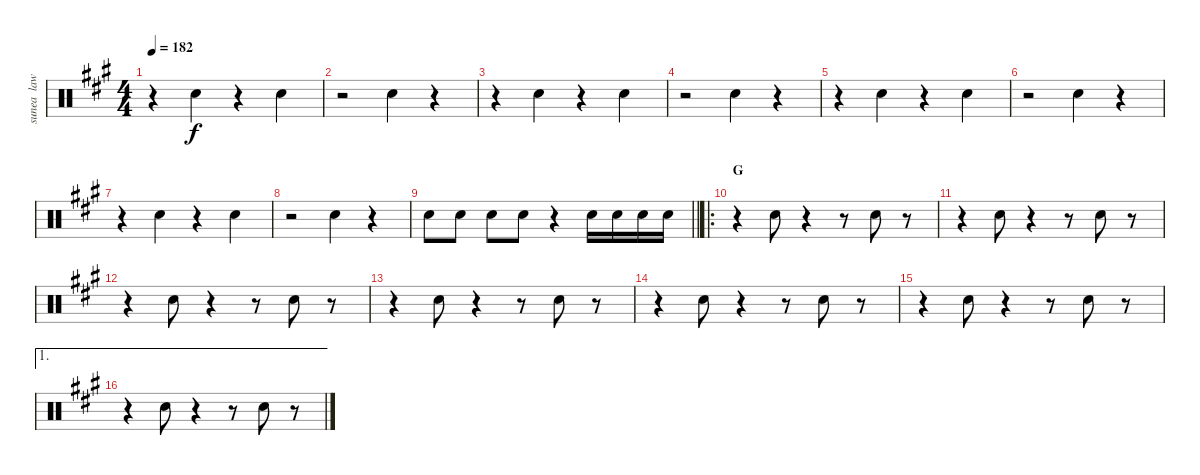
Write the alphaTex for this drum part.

\track ("sunea  law tam" "sunea  law") {instrument percussion}
\staff {score}
\articulation defaults
\ts (4 4)
\tempo 182
\clef neutral
\ks f#minor
r.4{dy f} "Snare (hit) 2".4 r.4 "Snare (hit) 2".4 |
r.2 "Snare (hit) 2".4 r.4 |
r.4 "Snare (hit) 2".4 r.4 "Snare (hit) 2".4 |
r.2 "Snare (hit) 2".4 r.4 |
r.4 "Snare (hit) 2".4 r.4 "Snare (hit) 2".4 |
r.2 "Snare (hit) 2".4 r.4 |
r.4 "Snare (hit) 2".4 r.4 "Snare (hit) 2".4 |
r.2 "Snare (hit) 2".4 r.4 |
\barLineRight lightlight "Snare (hit) 2".8 "Snare (hit) 2".8 "Snare (hit) 2".8 "Snare (hit) 2".8
r.4 "Snare (hit) 2".16 "Snare (hit) 2".16 "Snare (hit) 2".16 "Snare (hit) 2".16 |
\ro
\section ("" "G")
r.4 "Snare (hit) 2".8 r.4 r.8 "Snare (hit) 2".8 r.8 |
r.4 "Snare (hit) 2".8 r.4 r.8 "Snare (hit) 2".8 r.8 |
r.4 "Snare (hit) 2".8 r.4 r.8 "Snare (hit) 2".8 r.8 |
r.4 "Snare (hit) 2".8 r.4 r.8 "Snare (hit) 2".8 r.8 |
r.4 "Snare (hit) 2".8 r.4 r.8 "Snare (hit) 2".8 r.8 |
r.4 "Snare (hit) 2".8 r.4 r.8 "Snare (hit) 2".8 r.8 |
\ae 1
r.4 "Snare (hit) 2".8 r.4 r.8 "Snare (hit) 2".8 r.8
